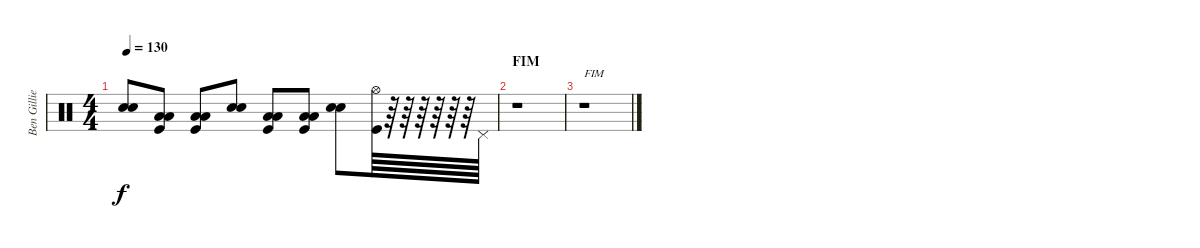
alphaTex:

\track ("Ben Gillies" "Ben Gillie") {instrument percussion}
\staff {score}
\articulation defaults
\ts (4 4)
\tempo 130
\clef neutral
\ks c
("Snare (hit) 2" "Snare (hit) 2").8{bu 60 dy f} ("Kick (hit)" "Low Floor Tom (hit)" "Low Floor Tom (hit)").8 ("Kick (hit)" "Low Floor Tom (hit)" "Low Floor Tom (hit)").8 ("Snare (hit) 2" "Snare (hit) 2").8{bu 60} ("Kick (hit)" "Low Floor Tom (hit)" "Low Floor Tom (hit)").8 ("Kick (hit)" "Low Floor Tom (hit)" "Low Floor Tom (hit)").8 ("Snare (hit) 2" "Snare (hit) 2").8{bu 60} ("Kick (hit)" "Hi-Hat (open)").64 r.64 r.64 r.64 r.64 r.64 r.64 "Pedal Hi-Hat (hit)".64 |
\section ("" "FIM")
r.1 |
r.1{txt "FIM"}
